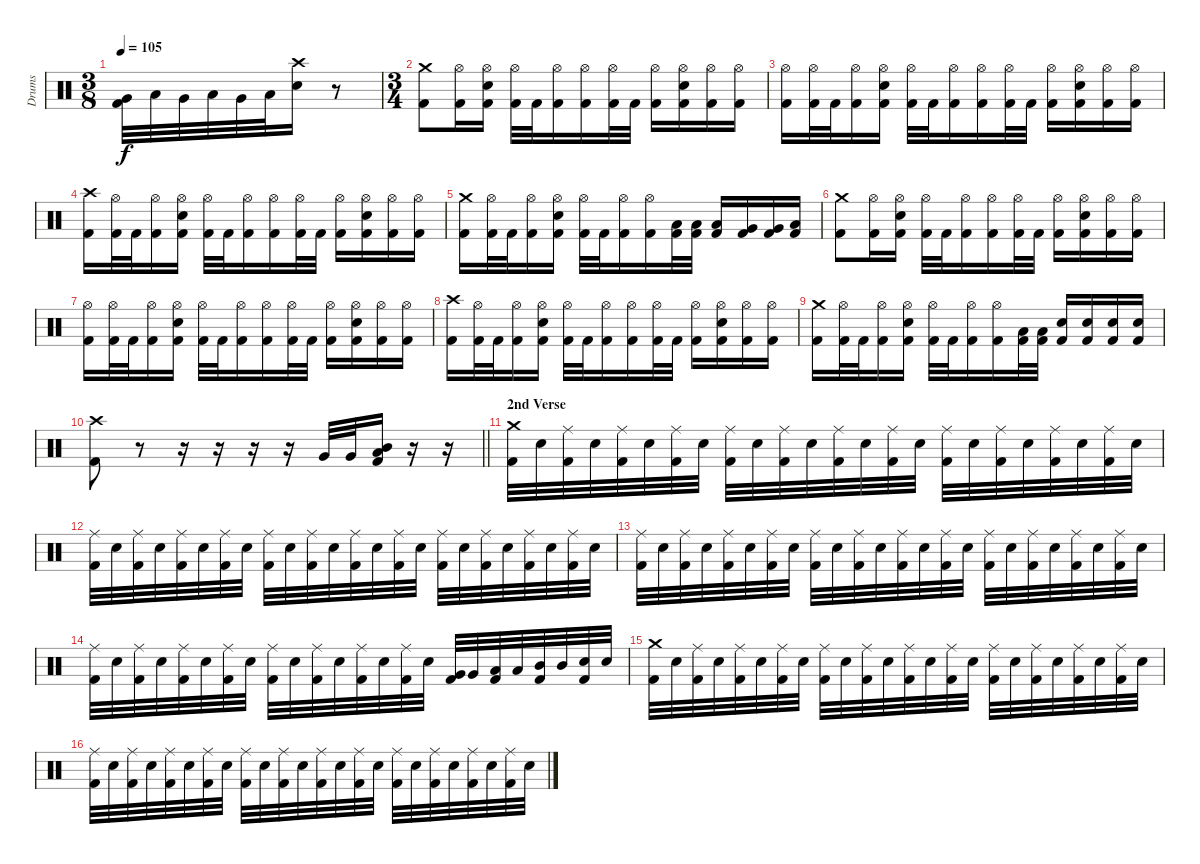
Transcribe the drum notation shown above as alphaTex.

\track ("Drums" "Drums") {instrument percussion}
\staff {score}
\articulation defaults
\ts (3 8)
\tempo 105
\clef neutral
\ks c
("Kick (hit) 2" "Very Low Tom (hit)").32{dy f} "Low Tom (hit)".32 "Very Low Tom (hit)".32 "Low Tom (hit)".32 "Very Low Tom (hit)".32 "Low Tom (hit)".32 ("Electric Snare (hit)" "Crash high (hit)").16 r.8 |
\ts (3 4)
("Kick (hit) 2" "Crash medium (hit)").8 ("Kick (hit) 2" "Hi-Hat (open)").16 ("Kick (hit) 2" "Electric Snare (hit)" "Hi-Hat (open)").16 ("Kick (hit) 2" "Hi-Hat (open)").32 "Kick (hit) 2".32 ("Kick (hit) 2" "Hi-Hat (open)").16 ("Kick (hit) 2" "Hi-Hat (open)").16 ("Kick (hit) 2" "Hi-Hat (open)").32 "Kick (hit) 2".32 ("Kick (hit) 2" "Hi-Hat (open)").16 ("Kick (hit) 2" "Electric Snare (hit)" "Hi-Hat (open)").16 ("Kick (hit) 2" "Hi-Hat (open)").16 ("Kick (hit) 2" "Hi-Hat (open)").16 |
("Kick (hit) 2" "Hi-Hat (open)").16 ("Kick (hit) 2" "Hi-Hat (open)").32 "Kick (hit) 2".32 ("Kick (hit) 2" "Hi-Hat (open)").16 ("Kick (hit) 2" "Electric Snare (hit)" "Hi-Hat (open)").16 ("Kick (hit) 2" "Hi-Hat (open)").32 "Kick (hit) 2".32 ("Kick (hit) 2" "Hi-Hat (open)").16 ("Kick (hit) 2" "Hi-Hat (open)").16 ("Kick (hit) 2" "Hi-Hat (open)").32 "Kick (hit) 2".32 ("Kick (hit) 2" "Hi-Hat (open)").16 ("Kick (hit) 2" "Electric Snare (hit)" "Hi-Hat (open)").16 ("Kick (hit) 2" "Hi-Hat (open)").16 ("Kick (hit) 2" "Hi-Hat (open)").16 |
("Kick (hit) 2" "Crash high (hit)").16 ("Kick (hit) 2" "Hi-Hat (open)").32 "Kick (hit) 2".32 ("Kick (hit) 2" "Hi-Hat (open)").16 ("Kick (hit) 2" "Electric Snare (hit)" "Hi-Hat (open)").16 ("Kick (hit) 2" "Hi-Hat (open)").32 "Kick (hit) 2".32 ("Kick (hit) 2" "Hi-Hat (open)").16 ("Kick (hit) 2" "Hi-Hat (open)").16 ("Kick (hit) 2" "Hi-Hat (open)").32 "Kick (hit) 2".32 ("Kick (hit) 2" "Hi-Hat (open)").16 ("Kick (hit) 2" "Electric Snare (hit)" "Hi-Hat (open)").16 ("Kick (hit) 2" "Hi-Hat (open)").16 ("Kick (hit) 2" "Hi-Hat (open)").16 |
("Kick (hit) 2" "Crash medium (hit)").16 ("Kick (hit) 2" "Hi-Hat (open)").32 "Kick (hit) 2".32 ("Kick (hit) 2" "Hi-Hat (open)").16 ("Kick (hit) 2" "Electric Snare (hit)" "Hi-Hat (open)").16 ("Kick (hit) 2" "Hi-Hat (open)").32 "Kick (hit) 2".32 ("Kick (hit) 2" "Hi-Hat (open)").16 ("Kick (hit) 2" "Hi-Hat (open)").16 ("Kick (hit) 2" "Low Tom (hit)").32 ("Kick (hit) 2" "Low Tom (hit)").32 ("Kick (hit) 2" "Low Tom (hit)").16 ("Kick (hit) 2" "Very Low Tom (hit)").16 ("Kick (hit) 2" "Very Low Tom (hit)").16 ("Kick (hit) 2" "Low Floor Tom (hit)").16 |
("Kick (hit) 2" "Crash medium (hit)").8 ("Kick (hit) 2" "Hi-Hat (open)").16 ("Kick (hit) 2" "Electric Snare (hit)" "Hi-Hat (open)").16 ("Kick (hit) 2" "Hi-Hat (open)").32 "Kick (hit) 2".32 ("Kick (hit) 2" "Hi-Hat (open)").16 ("Kick (hit) 2" "Hi-Hat (open)").16 ("Kick (hit) 2" "Hi-Hat (open)").32 "Kick (hit) 2".32 ("Kick (hit) 2" "Hi-Hat (open)").16 ("Kick (hit) 2" "Electric Snare (hit)" "Hi-Hat (open)").16 ("Kick (hit) 2" "Hi-Hat (open)").16 ("Kick (hit) 2" "Hi-Hat (open)").16 |
("Kick (hit) 2" "Hi-Hat (open)").16 ("Kick (hit) 2" "Hi-Hat (open)").32 "Kick (hit) 2".32 ("Kick (hit) 2" "Hi-Hat (open)").16 ("Kick (hit) 2" "Electric Snare (hit)" "Hi-Hat (open)").16 ("Kick (hit) 2" "Hi-Hat (open)").32 "Kick (hit) 2".32 ("Kick (hit) 2" "Hi-Hat (open)").16 ("Kick (hit) 2" "Hi-Hat (open)").16 ("Kick (hit) 2" "Hi-Hat (open)").32 "Kick (hit) 2".32 ("Kick (hit) 2" "Hi-Hat (open)").16 ("Kick (hit) 2" "Electric Snare (hit)" "Hi-Hat (open)").16 ("Kick (hit) 2" "Hi-Hat (open)").16 ("Kick (hit) 2" "Hi-Hat (open)").16 |
("Kick (hit) 2" "Crash high (hit)").16 ("Kick (hit) 2" "Hi-Hat (open)").32 "Kick (hit) 2".32 ("Kick (hit) 2" "Hi-Hat (open)").16 ("Kick (hit) 2" "Electric Snare (hit)" "Hi-Hat (open)").16 ("Kick (hit) 2" "Hi-Hat (open)").32 "Kick (hit) 2".32 ("Kick (hit) 2" "Hi-Hat (open)").16 ("Kick (hit) 2" "Hi-Hat (open)").16 ("Kick (hit) 2" "Hi-Hat (open)").32 "Kick (hit) 2".32 ("Kick (hit) 2" "Hi-Hat (open)").16 ("Kick (hit) 2" "Electric Snare (hit)" "Hi-Hat (open)").16 ("Kick (hit) 2" "Hi-Hat (open)").16 ("Kick (hit) 2" "Hi-Hat (open)").16 |
("Kick (hit) 2" "Crash medium (hit)").16 ("Kick (hit) 2" "Hi-Hat (open)").32 "Kick (hit) 2".32 ("Kick (hit) 2" "Hi-Hat (open)").16 ("Kick (hit) 2" "Electric Snare (hit)" "Hi-Hat (open)").16 ("Kick (hit) 2" "Hi-Hat (open)").32 "Kick (hit) 2".32 ("Kick (hit) 2" "Hi-Hat (open)").16 ("Kick (hit) 2" "Hi-Hat (open)").16 ("Kick (hit) 2" "Low Tom (hit)").32 ("Kick (hit) 2" "Low Tom (hit)").32 ("Kick (hit) 2" "Electric Snare (hit)").16 ("Kick (hit) 2" "Electric Snare (hit)").16 ("Kick (hit) 2" "Electric Snare (hit)").16 ("Kick (hit) 2" "Electric Snare (hit)").16 |
\barLineRight lightlight
("Kick (hit) 2" "Crash high (hit)").8 r.8 r.16 r.16 r.16 r.16 "Very Low Tom (hit)".32 "Very Low Tom (hit)".32 ("Kick (hit) 2" "Mid Tom (hit)" "Low Tom (hit)").16 r.16 r.16 |
\section ("" "2nd Verse")
("Kick (hit) 2" "Crash medium (hit)").32 "Electric Snare (hit)".32 ("Kick (hit) 2" "Ride (middle)").32 "Electric Snare (hit)".32 ("Kick (hit) 2" "Ride (middle)").32 "Electric Snare (hit)".32 ("Kick (hit) 2" "Ride (middle)").32 "Electric Snare (hit)".32 ("Kick (hit) 2" "Ride (middle)").32 "Electric Snare (hit)".32 ("Kick (hit) 2" "Ride (middle)").32 "Electric Snare (hit)".32 ("Kick (hit) 2" "Ride (middle)").32 "Electric Snare (hit)".32 ("Kick (hit) 2" "Ride (middle)").32 "Electric Snare (hit)".32 ("Kick (hit) 2" "Ride (middle)").32 "Electric Snare (hit)".32 ("Kick (hit) 2" "Ride (middle)").32 "Electric Snare (hit)".32 ("Kick (hit) 2" "Ride (middle)").32 "Electric Snare (hit)".32 ("Kick (hit) 2" "Ride (middle)").32 "Electric Snare (hit)".32 |
("Kick (hit) 2" "Ride (middle)").32 "Electric Snare (hit)".32 ("Kick (hit) 2" "Ride (middle)").32 "Electric Snare (hit)".32 ("Kick (hit) 2" "Ride (middle)").32 "Electric Snare (hit)".32 ("Kick (hit) 2" "Ride (middle)").32 "Electric Snare (hit)".32 ("Kick (hit) 2" "Ride (middle)").32 "Electric Snare (hit)".32 ("Kick (hit) 2" "Ride (middle)").32 "Electric Snare (hit)".32 ("Kick (hit) 2" "Ride (middle)").32 "Electric Snare (hit)".32 ("Kick (hit) 2" "Ride (middle)").32 "Electric Snare (hit)".32 ("Kick (hit) 2" "Ride (middle)").32 "Electric Snare (hit)".32 ("Kick (hit) 2" "Ride (middle)").32 "Electric Snare (hit)".32 ("Kick (hit) 2" "Ride (middle)").32 "Electric Snare (hit)".32 ("Kick (hit) 2" "Ride (middle)").32 "Electric Snare (hit)".32 |
("Kick (hit) 2" "Ride (middle)").32 "Electric Snare (hit)".32 ("Kick (hit) 2" "Ride (middle)").32 "Electric Snare (hit)".32 ("Kick (hit) 2" "Ride (middle)").32 "Electric Snare (hit)".32 ("Kick (hit) 2" "Ride (middle)").32 "Electric Snare (hit)".32 ("Kick (hit) 2" "Ride (middle)").32 "Electric Snare (hit)".32 ("Kick (hit) 2" "Ride (middle)").32 "Electric Snare (hit)".32 ("Kick (hit) 2" "Ride (middle)").32 "Electric Snare (hit)".32 ("Kick (hit) 2" "Ride (middle)").32 "Electric Snare (hit)".32 ("Kick (hit) 2" "Ride (middle)").32 "Electric Snare (hit)".32 ("Kick (hit) 2" "Ride (middle)").32 "Electric Snare (hit)".32 ("Kick (hit) 2" "Ride (middle)").32 "Electric Snare (hit)".32 ("Kick (hit) 2" "Ride (middle)").32 "Electric Snare (hit)".32 |
("Kick (hit) 2" "Ride (middle)").32 "Electric Snare (hit)".32 ("Kick (hit) 2" "Ride (middle)").32 "Electric Snare (hit)".32 ("Kick (hit) 2" "Ride (middle)").32 "Electric Snare (hit)".32 ("Kick (hit) 2" "Ride (middle)").32 "Electric Snare (hit)".32 ("Kick (hit) 2" "Ride (middle)").32 "Electric Snare (hit)".32 ("Kick (hit) 2" "Ride (middle)").32 "Electric Snare (hit)".32 ("Kick (hit) 2" "Ride (middle)").32 "Electric Snare (hit)".32 ("Kick (hit) 2" "Ride (middle)").32 "Electric Snare (hit)".32 ("Kick (hit) 2" "Very Low Tom (hit)").32 "Very Low Tom (hit)".32 ("Kick (hit) 2" "Low Tom (hit)").32 "Low Tom (hit)".32 ("Kick (hit) 2" "Mid Tom (hit)").32 "Mid Tom (hit)".32 ("Kick (hit) 2" "Electric Snare (hit)").32 "Electric Snare (hit)".32 |
("Kick (hit) 2" "Crash medium (hit)").32 "Electric Snare (hit)".32 ("Kick (hit) 2" "Ride (middle)").32 "Electric Snare (hit)".32 ("Kick (hit) 2" "Ride (middle)").32 "Electric Snare (hit)".32 ("Kick (hit) 2" "Ride (middle)").32 "Electric Snare (hit)".32 ("Kick (hit) 2" "Ride (middle)").32 "Electric Snare (hit)".32 ("Kick (hit) 2" "Ride (middle)").32 "Electric Snare (hit)".32 ("Kick (hit) 2" "Ride (middle)").32 "Electric Snare (hit)".32 ("Kick (hit) 2" "Ride (middle)").32 "Electric Snare (hit)".32 ("Kick (hit) 2" "Ride (middle)").32 "Electric Snare (hit)".32 ("Kick (hit) 2" "Ride (middle)").32 "Electric Snare (hit)".32 ("Kick (hit) 2" "Ride (middle)").32 "Electric Snare (hit)".32 ("Kick (hit) 2" "Ride (middle)").32 "Electric Snare (hit)".32 |
("Kick (hit) 2" "Ride (middle)").32 "Electric Snare (hit)".32 ("Kick (hit) 2" "Ride (middle)").32 "Electric Snare (hit)".32 ("Kick (hit) 2" "Ride (middle)").32 "Electric Snare (hit)".32 ("Kick (hit) 2" "Ride (middle)").32 "Electric Snare (hit)".32 ("Kick (hit) 2" "Ride (middle)").32 "Electric Snare (hit)".32 ("Kick (hit) 2" "Ride (middle)").32 "Electric Snare (hit)".32 ("Kick (hit) 2" "Ride (middle)").32 "Electric Snare (hit)".32 ("Kick (hit) 2" "Ride (middle)").32 "Electric Snare (hit)".32 ("Kick (hit) 2" "Ride (middle)").32 "Electric Snare (hit)".32 ("Kick (hit) 2" "Ride (middle)").32 "Electric Snare (hit)".32 ("Kick (hit) 2" "Ride (middle)").32 "Electric Snare (hit)".32 ("Kick (hit) 2" "Ride (middle)").32 "Electric Snare (hit)".32
